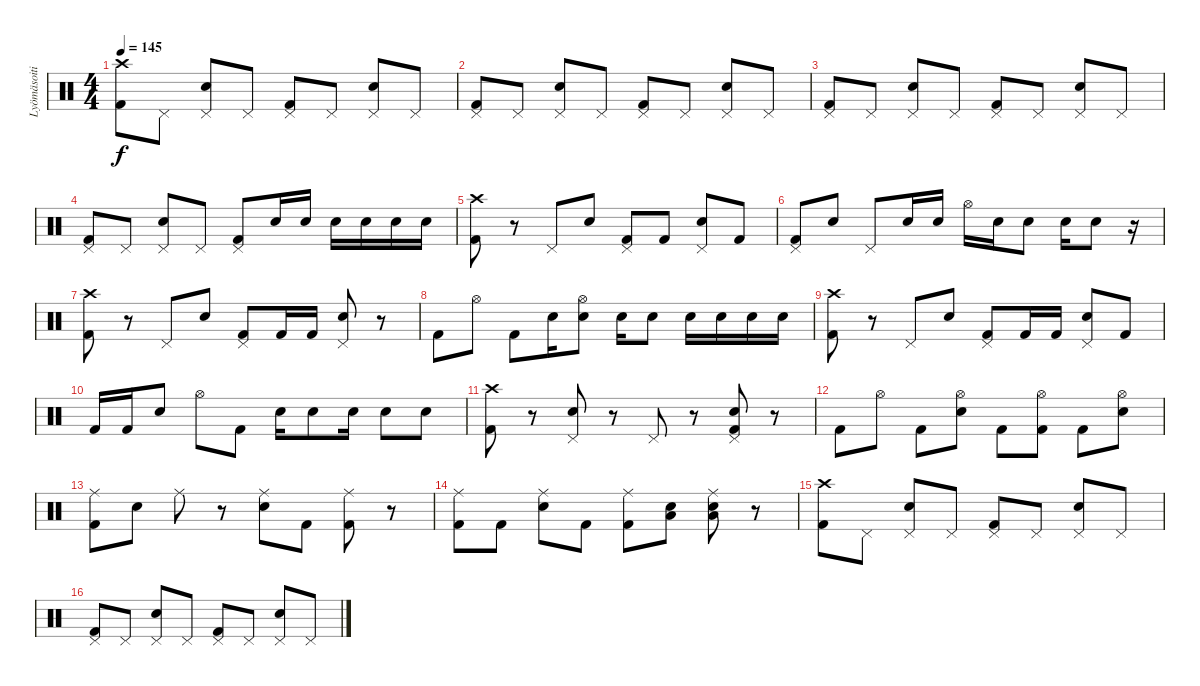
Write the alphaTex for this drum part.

\track ("Lyömäsoitin" "Lyömäsoiti") {instrument percussion}
\staff {score}
\articulation defaults
\ts (4 4)
\tempo 145
\clef neutral
\ks c
("Crash high (hit)" "Kick (hit) 2").8{dy f} "Pedal Hi-Hat (hit)".8 ("Pedal Hi-Hat (hit)" "Electric Snare (hit)").8 "Pedal Hi-Hat (hit)".8 ("Pedal Hi-Hat (hit)" "Kick (hit) 2").8 "Pedal Hi-Hat (hit)".8 ("Pedal Hi-Hat (hit)" "Electric Snare (hit)").8 "Pedal Hi-Hat (hit)".8 |
("Pedal Hi-Hat (hit)" "Kick (hit) 2").8 "Pedal Hi-Hat (hit)".8 ("Pedal Hi-Hat (hit)" "Electric Snare (hit)").8 "Pedal Hi-Hat (hit)".8 ("Pedal Hi-Hat (hit)" "Kick (hit) 2").8 "Pedal Hi-Hat (hit)".8 ("Pedal Hi-Hat (hit)" "Electric Snare (hit)").8 "Pedal Hi-Hat (hit)".8 |
("Pedal Hi-Hat (hit)" "Kick (hit) 2").8 "Pedal Hi-Hat (hit)".8 ("Pedal Hi-Hat (hit)" "Electric Snare (hit)").8 "Pedal Hi-Hat (hit)".8 ("Pedal Hi-Hat (hit)" "Kick (hit) 2").8 "Pedal Hi-Hat (hit)".8 ("Pedal Hi-Hat (hit)" "Electric Snare (hit)").8 "Pedal Hi-Hat (hit)".8 |
("Pedal Hi-Hat (hit)" "Kick (hit) 2").8 "Pedal Hi-Hat (hit)".8 ("Pedal Hi-Hat (hit)" "Electric Snare (hit)").8 "Pedal Hi-Hat (hit)".8 ("Pedal Hi-Hat (hit)" "Kick (hit) 2").8 "Electric Snare (hit)".16 "Electric Snare (hit)".16 "Electric Snare (hit)".16 "Electric Snare (hit)".16 "Electric Snare (hit)".16 "Electric Snare (hit)".16 |
("Crash high (hit)" "Kick (hit) 2").8 r.8 "Pedal Hi-Hat (hit)".8 "Electric Snare (hit)".8 ("Pedal Hi-Hat (hit)" "Kick (hit) 2").8 "Kick (hit) 2".8 ("Pedal Hi-Hat (hit)" "Electric Snare (hit)").8 "Kick (hit) 2".8 |
("Pedal Hi-Hat (hit)" "Kick (hit) 2").8 "Electric Snare (hit)".8 "Pedal Hi-Hat (hit)".8 "Electric Snare (hit)".16 "Electric Snare (hit)".16 "Hi-Hat (open)".16 "Electric Snare (hit)".16 "Electric Snare (hit)".8 "Electric Snare (hit)".16 "Electric Snare (hit)".8 r.16 |
("Crash high (hit)" "Kick (hit) 2").8 r.8 "Pedal Hi-Hat (hit)".8 "Electric Snare (hit)".8 ("Pedal Hi-Hat (hit)" "Kick (hit) 2").8 "Kick (hit) 2".16 "Kick (hit) 2".16 ("Pedal Hi-Hat (hit)" "Electric Snare (hit)").8 r.8 |
"Kick (hit) 2".8 "Hi-Hat (open)".8 "Kick (hit) 2".8 "Electric Snare (hit)".16 ("Hi-Hat (open)" "Electric Snare (hit)").8 "Electric Snare (hit)".16 "Electric Snare (hit)".8 "Electric Snare (hit)".16 "Electric Snare (hit)".16 "Electric Snare (hit)".16 "Electric Snare (hit)".16 |
("Crash high (hit)" "Kick (hit) 2").8 r.8 "Pedal Hi-Hat (hit)".8 "Electric Snare (hit)".8 ("Pedal Hi-Hat (hit)" "Kick (hit) 2").8 "Kick (hit) 2".16 "Kick (hit) 2".16 ("Pedal Hi-Hat (hit)" "Electric Snare (hit)").8 "Kick (hit) 2".8 |
"Kick (hit) 2".16 "Kick (hit) 2".16 "Electric Snare (hit)".8 "Hi-Hat (open)".8 "Kick (hit) 2".8 "Electric Snare (hit)".16 "Electric Snare (hit)".8 "Electric Snare (hit)".16 "Electric Snare (hit)".8 "Electric Snare (hit)".8 |
("Crash high (hit)" "Kick (hit) 2").8 r.8 ("Pedal Hi-Hat (hit)" "Electric Snare (hit)").8 r.8 "Pedal Hi-Hat (hit)".8 r.8 ("Pedal Hi-Hat (hit)" "Electric Snare (hit)" "Kick (hit) 2").8 r.8 |
"Kick (hit) 2".8 "Hi-Hat (open)".8 "Kick (hit) 2".8 ("Hi-Hat (open)" "Electric Snare (hit)").8 "Kick (hit) 2".8 ("Hi-Hat (open)" "Kick (hit) 2").8 "Kick (hit) 2".8 ("Hi-Hat (open)" "Electric Snare (hit)").8 |
("Ride (middle)" "Kick (hit) 2").8 "Electric Snare (hit)".8 "Ride (middle)".8 r.8 ("Ride (middle)" "Electric Snare (hit)").8 "Kick (hit) 2".8 ("Ride (middle)" "Kick (hit) 2").8 r.8 |
("Ride (middle)" "Kick (hit) 2").8 "Kick (hit) 2".8 ("Ride (middle)" "Electric Snare (hit)").8 "Kick (hit) 2".8 ("Ride (middle)" "Kick (hit) 2").8 ("Low Floor Tom (hit)" "Electric Snare (hit)").8 ("Ride (middle)" "Low Floor Tom (hit)" "Electric Snare (hit)").8 r.8 |
("Crash high (hit)" "Kick (hit) 2").8 "Pedal Hi-Hat (hit)".8 ("Pedal Hi-Hat (hit)" "Electric Snare (hit)").8 "Pedal Hi-Hat (hit)".8 ("Pedal Hi-Hat (hit)" "Kick (hit) 2").8 "Pedal Hi-Hat (hit)".8 ("Pedal Hi-Hat (hit)" "Electric Snare (hit)").8 "Pedal Hi-Hat (hit)".8 |
("Pedal Hi-Hat (hit)" "Kick (hit) 2").8 "Pedal Hi-Hat (hit)".8 ("Pedal Hi-Hat (hit)" "Electric Snare (hit)").8 "Pedal Hi-Hat (hit)".8 ("Pedal Hi-Hat (hit)" "Kick (hit) 2").8 "Pedal Hi-Hat (hit)".8 ("Pedal Hi-Hat (hit)" "Electric Snare (hit)").8 "Pedal Hi-Hat (hit)".8
